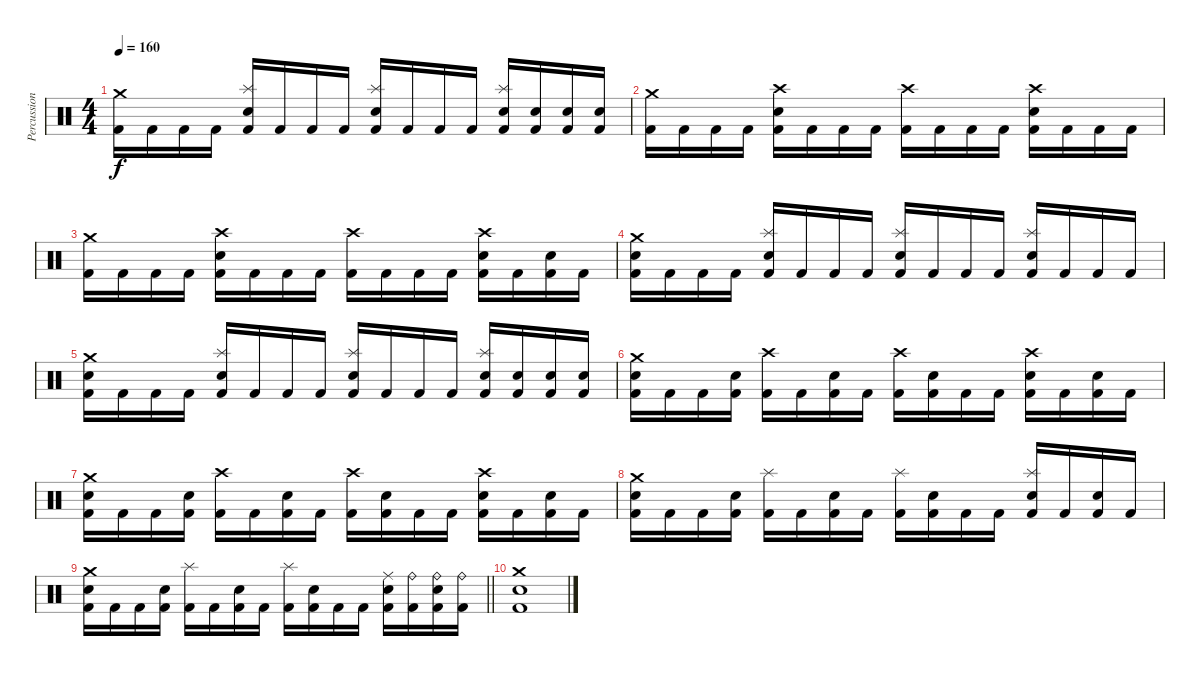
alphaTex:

\track ("Percussioni" "Percussion") {instrument percussion}
\staff {score}
\articulation defaults
\ts (4 4)
\tempo 160
\clef neutral
\ks c
("Crash medium (hit)" "Kick (hit) 2").16{dy f} "Kick (hit) 2".16 "Kick (hit) 2".16 "Kick (hit) 2".16 ("Splash (hit)" "Electric Snare (hit)" "Kick (hit) 2").16 "Kick (hit) 2".16 "Kick (hit) 2".16 "Kick (hit) 2".16 ("Splash (hit)" "Electric Snare (hit)" "Kick (hit) 2").16 "Kick (hit) 2".16 "Kick (hit) 2".16 "Kick (hit) 2".16 ("Splash (hit)" "Electric Snare (hit)" "Kick (hit) 2").16 ("Electric Snare (hit)" "Kick (hit) 2").16 ("Electric Snare (hit)" "Kick (hit) 2").16 ("Electric Snare (hit)" "Kick (hit) 2").16 |
("Crash medium (hit)" "Kick (hit) 2").16 "Kick (hit) 2".16 "Kick (hit) 2".16 "Kick (hit) 2".16 ("Crash high (hit)" "Electric Snare (hit)" "Kick (hit) 2").16 "Kick (hit) 2".16 "Kick (hit) 2".16 "Kick (hit) 2".16 ("Crash high (hit)" "Kick (hit) 2").16 "Kick (hit) 2".16 "Kick (hit) 2".16 "Kick (hit) 2".16 ("Crash high (hit)" "Electric Snare (hit)" "Kick (hit) 2").16 "Kick (hit) 2".16 "Kick (hit) 2".16 "Kick (hit) 2".16 |
("Crash medium (hit)" "Kick (hit) 2").16 "Kick (hit) 2".16 "Kick (hit) 2".16 "Kick (hit) 2".16 ("Crash high (hit)" "Electric Snare (hit)" "Kick (hit) 2").16 "Kick (hit) 2".16 "Kick (hit) 2".16 "Kick (hit) 2".16 ("Crash high (hit)" "Kick (hit) 2").16 "Kick (hit) 2".16 "Kick (hit) 2".16 "Kick (hit) 2".16 ("Crash high (hit)" "Electric Snare (hit)" "Kick (hit) 2").16 "Kick (hit) 2".16 ("Electric Snare (hit)" "Kick (hit) 2").16 "Kick (hit) 2".16 |
("Crash medium (hit)" "Electric Snare (hit)" "Kick (hit) 2").16 "Kick (hit) 2".16 "Kick (hit) 2".16 "Kick (hit) 2".16 ("Splash (hit)" "Electric Snare (hit)" "Kick (hit) 2").16 "Kick (hit) 2".16 "Kick (hit) 2".16 "Kick (hit) 2".16 ("Splash (hit)" "Electric Snare (hit)" "Kick (hit) 2").16 "Kick (hit) 2".16 "Kick (hit) 2".16 "Kick (hit) 2".16 ("Splash (hit)" "Electric Snare (hit)" "Kick (hit) 2").16 "Kick (hit) 2".16 "Kick (hit) 2".16 "Kick (hit) 2".16 |
("Crash medium (hit)" "Electric Snare (hit)" "Kick (hit) 2").16 "Kick (hit) 2".16 "Kick (hit) 2".16 "Kick (hit) 2".16 ("Splash (hit)" "Electric Snare (hit)" "Kick (hit) 2").16 "Kick (hit) 2".16 "Kick (hit) 2".16 "Kick (hit) 2".16 ("Splash (hit)" "Electric Snare (hit)" "Kick (hit) 2").16 "Kick (hit) 2".16 "Kick (hit) 2".16 "Kick (hit) 2".16 ("Splash (hit)" "Electric Snare (hit)" "Kick (hit) 2").16 ("Electric Snare (hit)" "Kick (hit) 2").16 ("Electric Snare (hit)" "Kick (hit) 2").16 ("Electric Snare (hit)" "Kick (hit) 2").16 |
("Crash medium (hit)" "Electric Snare (hit)" "Kick (hit) 2").16 "Kick (hit) 2".16 "Kick (hit) 2".16 ("Electric Snare (hit)" "Kick (hit) 2").16 ("Crash high (hit)" "Kick (hit) 2").16 "Kick (hit) 2".16 ("Electric Snare (hit)" "Kick (hit) 2").16 "Kick (hit) 2".16 ("Crash high (hit)" "Kick (hit) 2").16 ("Electric Snare (hit)" "Kick (hit) 2").16 "Kick (hit) 2".16 "Kick (hit) 2".16 ("Crash high (hit)" "Electric Snare (hit)" "Kick (hit) 2").16 "Kick (hit) 2".16 ("Electric Snare (hit)" "Kick (hit) 2").16 "Kick (hit) 2".16 |
("Crash medium (hit)" "Electric Snare (hit)" "Kick (hit) 2").16 "Kick (hit) 2".16 "Kick (hit) 2".16 ("Electric Snare (hit)" "Kick (hit) 2").16 ("Crash high (hit)" "Kick (hit) 2").16 "Kick (hit) 2".16 ("Electric Snare (hit)" "Kick (hit) 2").16 "Kick (hit) 2".16 ("Crash high (hit)" "Kick (hit) 2").16 ("Electric Snare (hit)" "Kick (hit) 2").16 "Kick (hit) 2".16 "Kick (hit) 2".16 ("Crash high (hit)" "Electric Snare (hit)" "Kick (hit) 2").16 "Kick (hit) 2".16 ("Electric Snare (hit)" "Kick (hit) 2").16 "Kick (hit) 2".16 |
("Crash medium (hit)" "Electric Snare (hit)" "Kick (hit) 2").16 "Kick (hit) 2".16 "Kick (hit) 2".16 ("Electric Snare (hit)" "Kick (hit) 2").16 ("Splash (hit)" "Kick (hit) 2").16 "Kick (hit) 2".16 ("Electric Snare (hit)" "Kick (hit) 2").16 "Kick (hit) 2".16 ("Splash (hit)" "Kick (hit) 2").16 ("Electric Snare (hit)" "Kick (hit) 2").16 "Kick (hit) 2".16 "Kick (hit) 2".16 ("Splash (hit)" "Electric Snare (hit)" "Kick (hit) 2").16 "Kick (hit) 2".16 ("Electric Snare (hit)" "Kick (hit) 2").16 "Kick (hit) 2".16 |
\barLineRight lightlight
("Crash medium (hit)" "Electric Snare (hit)" "Kick (hit) 2").16 "Kick (hit) 2".16 "Kick (hit) 2".16 ("Electric Snare (hit)" "Kick (hit) 2").16 ("Splash (hit)" "Kick (hit) 2").16 "Kick (hit) 2".16 ("Electric Snare (hit)" "Kick (hit) 2").16 "Kick (hit) 2".16 ("Splash (hit)" "Kick (hit) 2").16 ("Electric Snare (hit)" "Kick (hit) 2").16 "Kick (hit) 2".16 "Kick (hit) 2".16 ("Ride (middle)" "Electric Snare (hit)" "Kick (hit) 2").16 ("Ride (bell)" "Kick (hit) 2").16 ("Ride (bell)" "Electric Snare (hit)" "Kick (hit) 2").16 ("Ride (bell)" "Kick (hit) 2").16 |
("Crash medium (hit)" "Electric Snare (hit)" "Kick (hit) 2").1
